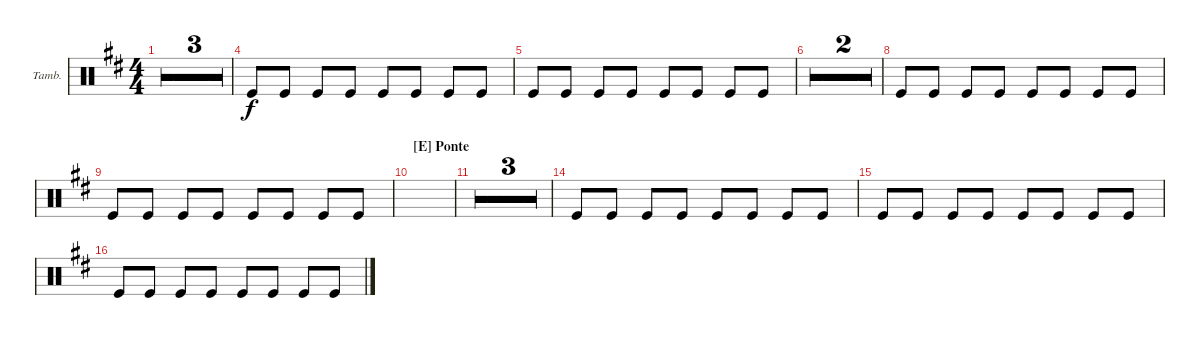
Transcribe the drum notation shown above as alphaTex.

\defaultSystemsLayout 4
\bracketExtendMode groupsimilarinstruments
\firstSystemTrackNameOrientation horizontal
\otherSystemsTrackNameOrientation horizontal
\track ("Tambourine" "Tamb.") {multiBarRest instrument percussion}
\staff {score}
\articulation defaults
\ts (4 4)
\tempo 72
\clef neutral
\ks d
|
|
|
"Kick (hit)".8 "Kick (hit)".8 "Kick (hit)".8 "Kick (hit)".8 "Kick (hit)".8 "Kick (hit)".8 "Kick (hit)".8 "Kick (hit)".8 |
"Kick (hit)".8 "Kick (hit)".8 "Kick (hit)".8 "Kick (hit)".8 "Kick (hit)".8 "Kick (hit)".8 "Kick (hit)".8 "Kick (hit)".8 |
|
|
"Kick (hit)".8 "Kick (hit)".8 "Kick (hit)".8 "Kick (hit)".8 "Kick (hit)".8 "Kick (hit)".8 "Kick (hit)".8 "Kick (hit)".8 |
"Kick (hit)".8 "Kick (hit)".8 "Kick (hit)".8 "Kick (hit)".8 "Kick (hit)".8 "Kick (hit)".8 "Kick (hit)".8 "Kick (hit)".8 |
\section ("E" "Ponte")
|
|
|
|
"Kick (hit)".8 "Kick (hit)".8 "Kick (hit)".8 "Kick (hit)".8 "Kick (hit)".8 "Kick (hit)".8 "Kick (hit)".8 "Kick (hit)".8 |
"Kick (hit)".8 "Kick (hit)".8 "Kick (hit)".8 "Kick (hit)".8 "Kick (hit)".8 "Kick (hit)".8 "Kick (hit)".8 "Kick (hit)".8 |
"Kick (hit)".8 "Kick (hit)".8 "Kick (hit)".8 "Kick (hit)".8 "Kick (hit)".8 "Kick (hit)".8 "Kick (hit)".8 "Kick (hit)".8
